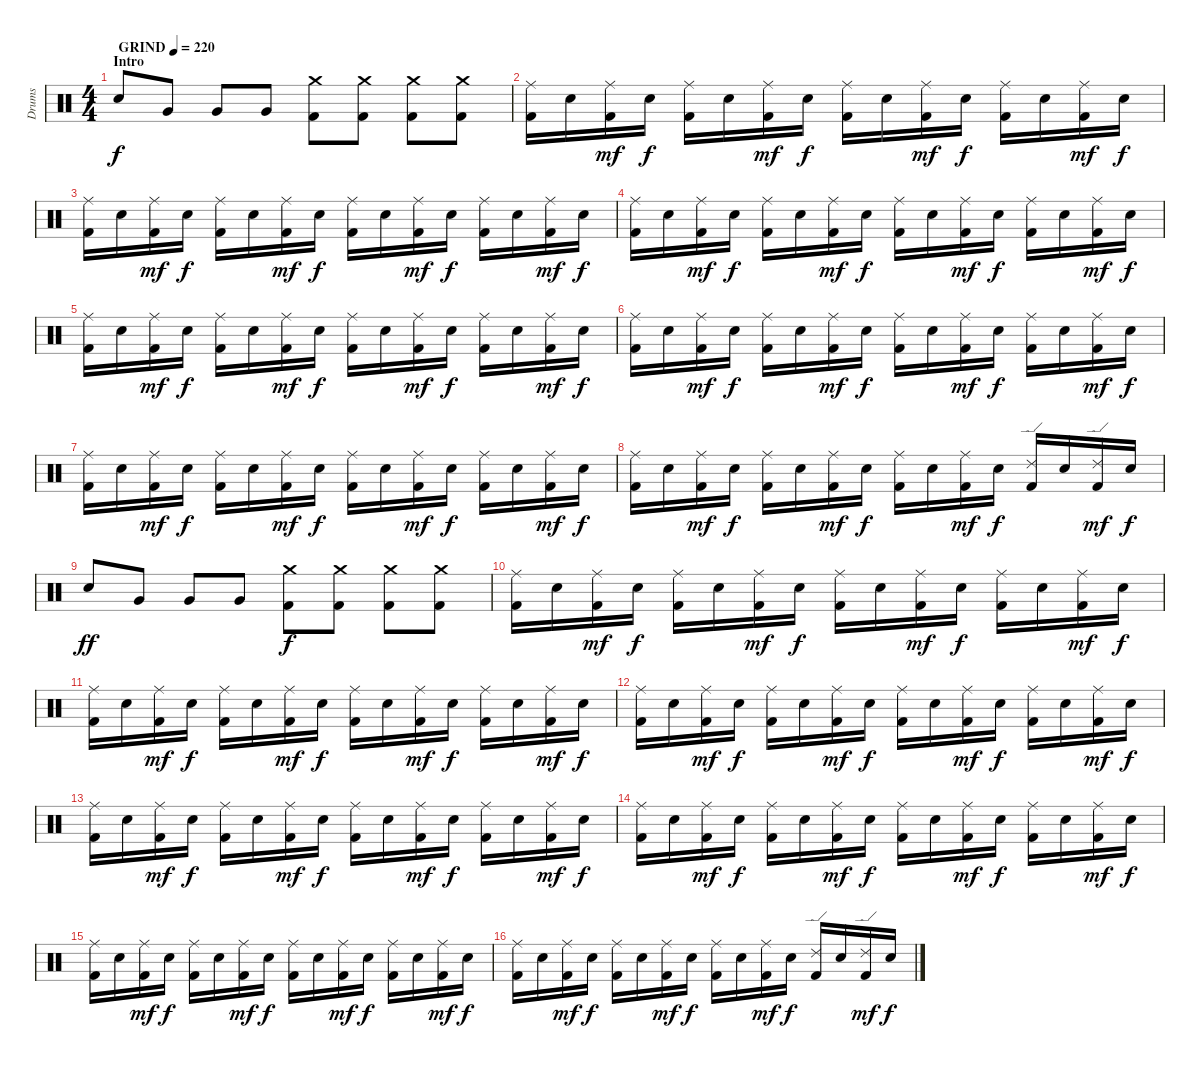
\track ("Drums" "Drums") {instrument percussion}
\staff {score}
\articulation defaults
\ts (4 4)
\section ("" "Intro")
\tempo (220 "GRIND")
\clef neutral
\ks c "Snare (hit) 2".8{dy f} "Very Low Tom (hit)".8 "Very Low Tom (hit)".8 "Very Low Tom (hit)".8
("Crash medium (hit)" "Kick (hit) 2").8 ("Crash medium (hit)" "Kick (hit) 2").8 ("Crash medium (hit)" "Kick (hit) 2").8 ("Crash medium (hit)" "Kick (hit) 2").8 |
("Ride (middle)" "Kick (hit) 2").16 "Snare (hit) 2".16 ("Ride (middle)" "Kick (hit) 2").16{dy mf} "Snare (hit) 2".16{dy f} ("Ride (middle)" "Kick (hit) 2").16 "Snare (hit) 2".16 ("Ride (middle)" "Kick (hit) 2").16{dy mf} "Snare (hit) 2".16{dy f} ("Ride (middle)" "Kick (hit) 2").16 "Snare (hit) 2".16 ("Ride (middle)" "Kick (hit) 2").16{dy mf} "Snare (hit) 2".16{dy f} ("Ride (middle)" "Kick (hit) 2").16 "Snare (hit) 2".16 ("Ride (middle)" "Kick (hit) 2").16{dy mf} "Snare (hit) 2".16{dy f} |
("Ride (middle)" "Kick (hit) 2").16 "Snare (hit) 2".16 ("Ride (middle)" "Kick (hit) 2").16{dy mf} "Snare (hit) 2".16{dy f} ("Ride (middle)" "Kick (hit) 2").16 "Snare (hit) 2".16 ("Ride (middle)" "Kick (hit) 2").16{dy mf} "Snare (hit) 2".16{dy f} ("Ride (middle)" "Kick (hit) 2").16 "Snare (hit) 2".16 ("Ride (middle)" "Kick (hit) 2").16{dy mf} "Snare (hit) 2".16{dy f} ("Ride (middle)" "Kick (hit) 2").16 "Snare (hit) 2".16 ("Ride (middle)" "Kick (hit) 2").16{dy mf} "Snare (hit) 2".16{dy f} |
("Ride (middle)" "Kick (hit) 2").16 "Snare (hit) 2".16 ("Ride (middle)" "Kick (hit) 2").16{dy mf} "Snare (hit) 2".16{dy f} ("Ride (middle)" "Kick (hit) 2").16 "Snare (hit) 2".16 ("Ride (middle)" "Kick (hit) 2").16{dy mf} "Snare (hit) 2".16{dy f} ("Ride (middle)" "Kick (hit) 2").16 "Snare (hit) 2".16 ("Ride (middle)" "Kick (hit) 2").16{dy mf} "Snare (hit) 2".16{dy f} ("Ride (middle)" "Kick (hit) 2").16 "Snare (hit) 2".16 ("Ride (middle)" "Kick (hit) 2").16{dy mf} "Snare (hit) 2".16{dy f} |
("Ride (middle)" "Kick (hit) 2").16 "Snare (hit) 2".16 ("Ride (middle)" "Kick (hit) 2").16{dy mf} "Snare (hit) 2".16{dy f} ("Ride (middle)" "Kick (hit) 2").16 "Snare (hit) 2".16 ("Ride (middle)" "Kick (hit) 2").16{dy mf} "Snare (hit) 2".16{dy f} ("Ride (middle)" "Kick (hit) 2").16 "Snare (hit) 2".16 ("Ride (middle)" "Kick (hit) 2").16{dy mf} "Snare (hit) 2".16{dy f} ("Ride (middle)" "Kick (hit) 2").16 "Snare (hit) 2".16 ("Ride (middle)" "Kick (hit) 2").16{dy mf} "Snare (hit) 2".16{dy f} |
("Ride (middle)" "Kick (hit) 2").16 "Snare (hit) 2".16 ("Ride (middle)" "Kick (hit) 2").16{dy mf} "Snare (hit) 2".16{dy f} ("Ride (middle)" "Kick (hit) 2").16 "Snare (hit) 2".16 ("Ride (middle)" "Kick (hit) 2").16{dy mf} "Snare (hit) 2".16{dy f} ("Ride (middle)" "Kick (hit) 2").16 "Snare (hit) 2".16 ("Ride (middle)" "Kick (hit) 2").16{dy mf} "Snare (hit) 2".16{dy f} ("Ride (middle)" "Kick (hit) 2").16 "Snare (hit) 2".16 ("Ride (middle)" "Kick (hit) 2").16{dy mf} "Snare (hit) 2".16{dy f} |
("Ride (middle)" "Kick (hit) 2").16 "Snare (hit) 2".16 ("Ride (middle)" "Kick (hit) 2").16{dy mf} "Snare (hit) 2".16{dy f} ("Ride (middle)" "Kick (hit) 2").16 "Snare (hit) 2".16 ("Ride (middle)" "Kick (hit) 2").16{dy mf} "Snare (hit) 2".16{dy f} ("Ride (middle)" "Kick (hit) 2").16 "Snare (hit) 2".16 ("Ride (middle)" "Kick (hit) 2").16{dy mf} "Snare (hit) 2".16{dy f} ("Ride (middle)" "Kick (hit) 2").16 "Snare (hit) 2".16 ("Ride (middle)" "Kick (hit) 2").16{dy mf} "Snare (hit) 2".16{dy f} |
("Ride (middle)" "Kick (hit) 2").16 "Snare (hit) 2".16 ("Ride (middle)" "Kick (hit) 2").16{dy mf} "Snare (hit) 2".16{dy f} ("Ride (middle)" "Kick (hit) 2").16 "Snare (hit) 2".16 ("Ride (middle)" "Kick (hit) 2").16{dy mf} "Snare (hit) 2".16{dy f} ("Ride (middle)" "Kick (hit) 2").16 "Snare (hit) 2".16 ("Ride (middle)" "Kick (hit) 2").16{dy mf} "Snare (hit) 2".16{dy f} ("Ride (edge) 2" "Kick (hit) 2").16 "Snare (hit) 2".16 ("Ride (edge) 2" "Kick (hit) 2").16{dy mf} "Snare (hit) 2".16{dy f} |
"Snare (hit) 2".8{dy ff} "Very Low Tom (hit)".8 "Very Low Tom (hit)".8 "Very Low Tom (hit)".8 ("Crash medium (hit)" "Kick (hit) 2").8{dy f} ("Crash medium (hit)" "Kick (hit) 2").8 ("Crash medium (hit)" "Kick (hit) 2").8 ("Crash medium (hit)" "Kick (hit) 2").8 |
("Ride (middle)" "Kick (hit) 2").16 "Snare (hit) 2".16 ("Ride (middle)" "Kick (hit) 2").16{dy mf} "Snare (hit) 2".16{dy f} ("Ride (middle)" "Kick (hit) 2").16 "Snare (hit) 2".16 ("Ride (middle)" "Kick (hit) 2").16{dy mf} "Snare (hit) 2".16{dy f} ("Ride (middle)" "Kick (hit) 2").16 "Snare (hit) 2".16 ("Ride (middle)" "Kick (hit) 2").16{dy mf} "Snare (hit) 2".16{dy f} ("Ride (middle)" "Kick (hit) 2").16 "Snare (hit) 2".16 ("Ride (middle)" "Kick (hit) 2").16{dy mf} "Snare (hit) 2".16{dy f} |
("Ride (middle)" "Kick (hit) 2").16 "Snare (hit) 2".16 ("Ride (middle)" "Kick (hit) 2").16{dy mf} "Snare (hit) 2".16{dy f} ("Ride (middle)" "Kick (hit) 2").16 "Snare (hit) 2".16 ("Ride (middle)" "Kick (hit) 2").16{dy mf} "Snare (hit) 2".16{dy f} ("Ride (middle)" "Kick (hit) 2").16 "Snare (hit) 2".16 ("Ride (middle)" "Kick (hit) 2").16{dy mf} "Snare (hit) 2".16{dy f} ("Ride (middle)" "Kick (hit) 2").16 "Snare (hit) 2".16 ("Ride (middle)" "Kick (hit) 2").16{dy mf} "Snare (hit) 2".16{dy f} |
("Ride (middle)" "Kick (hit) 2").16 "Snare (hit) 2".16 ("Ride (middle)" "Kick (hit) 2").16{dy mf} "Snare (hit) 2".16{dy f} ("Ride (middle)" "Kick (hit) 2").16 "Snare (hit) 2".16 ("Ride (middle)" "Kick (hit) 2").16{dy mf} "Snare (hit) 2".16{dy f} ("Ride (middle)" "Kick (hit) 2").16 "Snare (hit) 2".16 ("Ride (middle)" "Kick (hit) 2").16{dy mf} "Snare (hit) 2".16{dy f} ("Ride (middle)" "Kick (hit) 2").16 "Snare (hit) 2".16 ("Ride (middle)" "Kick (hit) 2").16{dy mf} "Snare (hit) 2".16{dy f} |
("Ride (middle)" "Kick (hit) 2").16 "Snare (hit) 2".16 ("Ride (middle)" "Kick (hit) 2").16{dy mf} "Snare (hit) 2".16{dy f} ("Ride (middle)" "Kick (hit) 2").16 "Snare (hit) 2".16 ("Ride (middle)" "Kick (hit) 2").16{dy mf} "Snare (hit) 2".16{dy f} ("Ride (middle)" "Kick (hit) 2").16 "Snare (hit) 2".16 ("Ride (middle)" "Kick (hit) 2").16{dy mf} "Snare (hit) 2".16{dy f} ("Ride (middle)" "Kick (hit) 2").16 "Snare (hit) 2".16 ("Ride (middle)" "Kick (hit) 2").16{dy mf} "Snare (hit) 2".16{dy f} |
("Ride (middle)" "Kick (hit) 2").16 "Snare (hit) 2".16 ("Ride (middle)" "Kick (hit) 2").16{dy mf} "Snare (hit) 2".16{dy f} ("Ride (middle)" "Kick (hit) 2").16 "Snare (hit) 2".16 ("Ride (middle)" "Kick (hit) 2").16{dy mf} "Snare (hit) 2".16{dy f} ("Ride (middle)" "Kick (hit) 2").16 "Snare (hit) 2".16 ("Ride (middle)" "Kick (hit) 2").16{dy mf} "Snare (hit) 2".16{dy f} ("Ride (middle)" "Kick (hit) 2").16 "Snare (hit) 2".16 ("Ride (middle)" "Kick (hit) 2").16{dy mf} "Snare (hit) 2".16{dy f} |
("Ride (middle)" "Kick (hit) 2").16 "Snare (hit) 2".16 ("Ride (middle)" "Kick (hit) 2").16{dy mf} "Snare (hit) 2".16{dy f} ("Ride (middle)" "Kick (hit) 2").16 "Snare (hit) 2".16 ("Ride (middle)" "Kick (hit) 2").16{dy mf} "Snare (hit) 2".16{dy f} ("Ride (middle)" "Kick (hit) 2").16 "Snare (hit) 2".16 ("Ride (middle)" "Kick (hit) 2").16{dy mf} "Snare (hit) 2".16{dy f} ("Ride (middle)" "Kick (hit) 2").16 "Snare (hit) 2".16 ("Ride (middle)" "Kick (hit) 2").16{dy mf} "Snare (hit) 2".16{dy f} |
("Ride (middle)" "Kick (hit) 2").16 "Snare (hit) 2".16 ("Ride (middle)" "Kick (hit) 2").16{dy mf} "Snare (hit) 2".16{dy f} ("Ride (middle)" "Kick (hit) 2").16 "Snare (hit) 2".16 ("Ride (middle)" "Kick (hit) 2").16{dy mf} "Snare (hit) 2".16{dy f} ("Ride (middle)" "Kick (hit) 2").16 "Snare (hit) 2".16 ("Ride (middle)" "Kick (hit) 2").16{dy mf} "Snare (hit) 2".16{dy f} ("Ride (edge) 2" "Kick (hit) 2").16 "Snare (hit) 2".16 ("Ride (edge) 2" "Kick (hit) 2").16{dy mf} "Snare (hit) 2".16{dy f}
